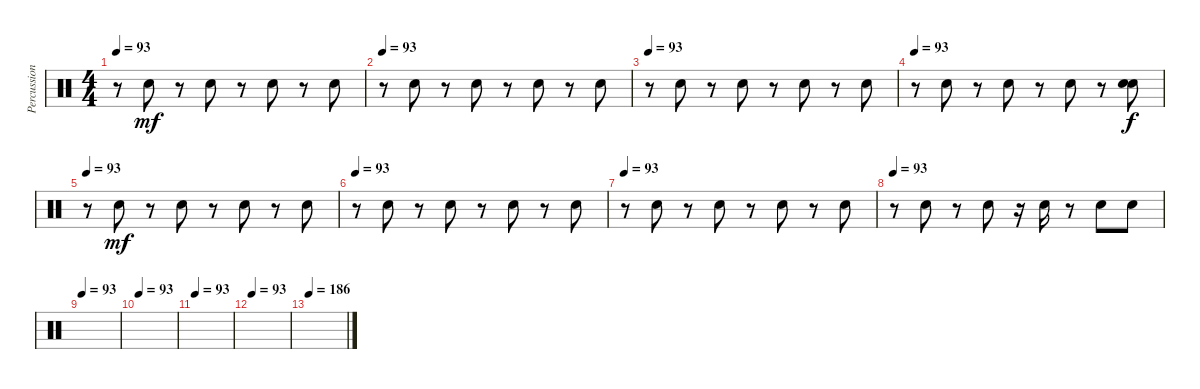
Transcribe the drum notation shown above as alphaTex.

\track ("Percussion" "Percussion") {instrument percussion}
\staff {score}
\articulation defaults
\ts (4 4)
\tempo 93
\clef neutral
\ks c
r.8{dy mf} "Snare (hit) 2".8 r.8 "Snare (hit) 2".8 r.8 "Snare (hit) 2".8 r.8 "Snare (hit) 2".8 |
\tempo 93
r.8 "Snare (hit) 2".8 r.8 "Snare (hit) 2".8 r.8 "Snare (hit) 2".8 r.8 "Snare (hit) 2".8 |
\tempo 93
r.8 "Snare (hit) 2".8 r.8 "Snare (hit) 2".8 r.8 "Snare (hit) 2".8 r.8 "Snare (hit) 2".8 |
\tempo 93
r.8 "Snare (hit) 2".8 r.8 "Snare (hit) 2".8 r.8 "Snare (hit) 2".8 r.8 ("Snare (hit) 2" "Snare (hit) 2").8{dy f} |
\tempo 93
r.8 "Snare (hit) 2".8{dy mf} r.8 "Snare (hit) 2".8 r.8 "Snare (hit) 2".8 r.8 "Snare (hit) 2".8 |
\tempo 93
r.8 "Snare (hit) 2".8 r.8 "Snare (hit) 2".8 r.8 "Snare (hit) 2".8 r.8 "Snare (hit) 2".8 |
\tempo 93
r.8 "Snare (hit) 2".8 r.8 "Snare (hit) 2".8 r.8 "Snare (hit) 2".8 r.8 "Snare (hit) 2".8 |
\tempo 93
r.8 "Snare (hit) 2".8 r.8 "Snare (hit) 2".8 r.16 "Snare (hit) 2".16 r.8 "Snare (hit) 2".8 "Snare (hit) 2".8 |
\tempo 93
|
\tempo 93
|
\tempo 93
|
\tempo 93
|
\tempo 186
